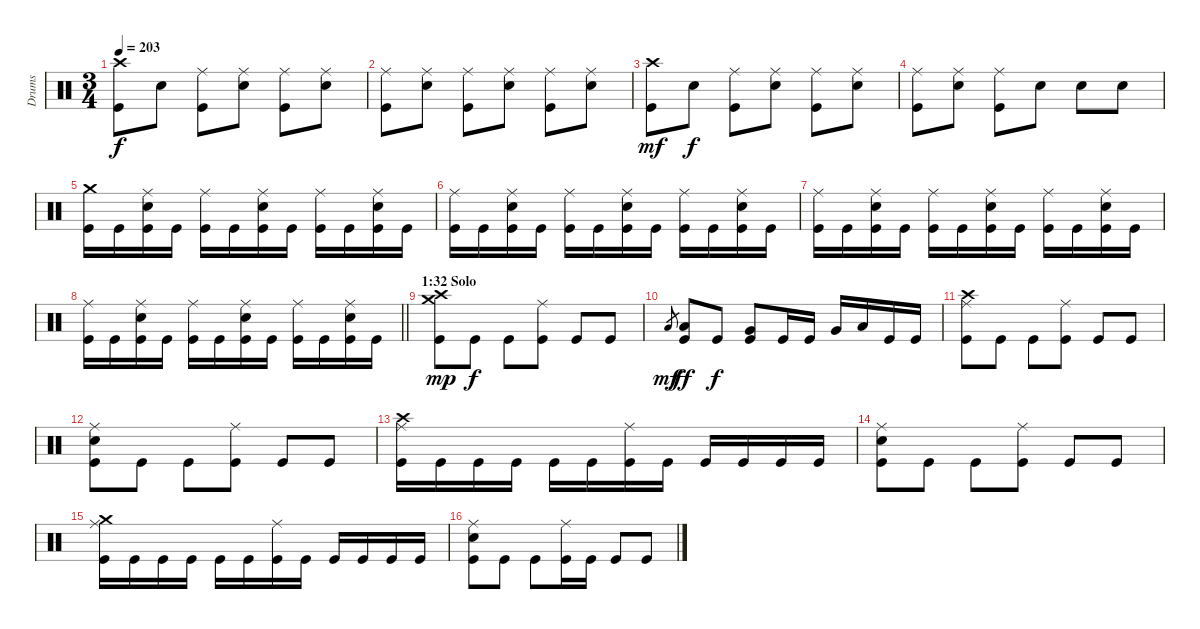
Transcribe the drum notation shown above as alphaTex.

\track ("Drums" "Drums") {instrument percussion}
\staff {score}
\articulation defaults
\ts (3 4)
\tempo 203
\clef neutral
\ks c
("Crash high (hit)" "Kick (hit)").8{dy f} "Electric Snare (hit)".8 ("Ride (middle)" "Kick (hit)").8 ("Ride (middle)" "Electric Snare (hit)").8 ("Ride (middle)" "Kick (hit)").8 ("Ride (middle)" "Electric Snare (hit)").8 |
("Ride (middle)" "Kick (hit)").8 ("Ride (middle)" "Electric Snare (hit)").8 ("Ride (middle)" "Kick (hit)").8 ("Ride (middle)" "Electric Snare (hit)").8 ("Ride (middle)" "Kick (hit)").8 ("Ride (middle)" "Electric Snare (hit)").8 |
("Crash high (hit)" "Kick (hit)").8{dy mf} "Electric Snare (hit)".8{dy f} ("Ride (middle)" "Kick (hit)").8 ("Ride (middle)" "Electric Snare (hit)").8 ("Ride (middle)" "Kick (hit)").8 ("Ride (middle)" "Electric Snare (hit)").8 |
("Ride (middle)" "Kick (hit)").8 ("Ride (middle)" "Electric Snare (hit)").8 ("Ride (middle)" "Kick (hit)").8 "Electric Snare (hit)".8 "Electric Snare (hit)".8 "Electric Snare (hit)".8 |
("Crash medium (hit)" "Kick (hit)").16 "Kick (hit)".16 ("Ride (middle)" "Electric Snare (hit)" "Kick (hit)").16 "Kick (hit)".16 ("Ride (middle)" "Kick (hit)").16 "Kick (hit)".16 ("Ride (middle)" "Electric Snare (hit)" "Kick (hit)").16 "Kick (hit)".16 ("Ride (middle)" "Kick (hit)").16 "Kick (hit)".16 ("Ride (middle)" "Electric Snare (hit)" "Kick (hit)").16 "Kick (hit)".16 |
("Ride (middle)" "Kick (hit)").16 "Kick (hit)".16 ("Ride (middle)" "Electric Snare (hit)" "Kick (hit)").16 "Kick (hit)".16 ("Ride (middle)" "Kick (hit)").16 "Kick (hit)".16 ("Ride (middle)" "Electric Snare (hit)" "Kick (hit)").16 "Kick (hit)".16 ("Ride (middle)" "Kick (hit)").16 "Kick (hit)".16 ("Ride (middle)" "Electric Snare (hit)" "Kick (hit)").16 "Kick (hit)".16 |
("Ride (middle)" "Kick (hit)").16 "Kick (hit)".16 ("Ride (middle)" "Electric Snare (hit)" "Kick (hit)").16 "Kick (hit)".16 ("Ride (middle)" "Kick (hit)").16 "Kick (hit)".16 ("Ride (middle)" "Electric Snare (hit)" "Kick (hit)").16 "Kick (hit)".16 ("Ride (middle)" "Kick (hit)").16 "Kick (hit)".16 ("Ride (middle)" "Electric Snare (hit)" "Kick (hit)").16 "Kick (hit)".16 |
\barLineRight lightlight
("Ride (middle)" "Kick (hit)").16 "Kick (hit)".16 ("Ride (middle)" "Electric Snare (hit)" "Kick (hit)").16 "Kick (hit)".16 ("Ride (middle)" "Kick (hit)").16 "Kick (hit)".16 ("Ride (middle)" "Electric Snare (hit)" "Kick (hit)").16 "Kick (hit)".16 ("Ride (middle)" "Kick (hit)").16 "Kick (hit)".16 ("Ride (middle)" "Electric Snare (hit)" "Kick (hit)").16 "Kick (hit)".16 |
\section ("" "1:32 Solo")
("Crash medium (hit)" "Crash high (hit)" "Kick (hit)").8{dy mp} "Kick (hit)".8{dy f} "Kick (hit)".8 ("Ride (middle)" "Kick (hit)").8 "Kick (hit)".8 "Kick (hit)".8 |
"Low Tom (hit)".8{gr dy mf} ("Low Tom (hit)" "Kick (hit)").8{dy ff} "Kick (hit)".8{dy f} ("Very Low Tom (hit)" "Kick (hit)").8 "Kick (hit)".16 "Kick (hit)".16 "Very Low Tom (hit)".16 "Low Floor Tom (hit)".16 "Kick (hit)".16 "Kick (hit)".16 |
("Crash high (hit)" "Ride (middle)" "Kick (hit)").8 "Kick (hit)".8 "Kick (hit)".8 ("Ride (middle)" "Kick (hit)").8 "Kick (hit)".8 "Kick (hit)".8 |
("Ride (middle)" "Electric Snare (hit)" "Kick (hit)").8 "Kick (hit)".8 "Kick (hit)".8 ("Ride (middle)" "Kick (hit)").8 "Kick (hit)".8 "Kick (hit)".8 |
("Crash high (hit)" "Ride (middle)" "Kick (hit)").16 "Kick (hit)".16 "Kick (hit)".16 "Kick (hit)".16 "Kick (hit)".16 "Kick (hit)".16 ("Ride (middle)" "Kick (hit)").16 "Kick (hit)".16 "Kick (hit)".16 "Kick (hit)".16 "Kick (hit)".16 "Kick (hit)".16 |
("Ride (middle)" "Electric Snare (hit)" "Kick (hit)").8 "Kick (hit)".8 "Kick (hit)".8 ("Ride (middle)" "Kick (hit)").8 "Kick (hit)".8 "Kick (hit)".8 |
("Crash medium (hit)" "Ride (middle)" "Kick (hit)").16 "Kick (hit)".16 "Kick (hit)".16 "Kick (hit)".16 "Kick (hit)".16 "Kick (hit)".16 ("Ride (middle)" "Kick (hit)").16 "Kick (hit)".16 "Kick (hit)".16 "Kick (hit)".16 "Kick (hit)".16 "Kick (hit)".16 |
("Ride (middle)" "Electric Snare (hit)" "Kick (hit)").8 "Kick (hit)".8 "Kick (hit)".8 ("Ride (middle)" "Kick (hit)").16 "Kick (hit)".16 "Kick (hit)".8 "Kick (hit)".8
